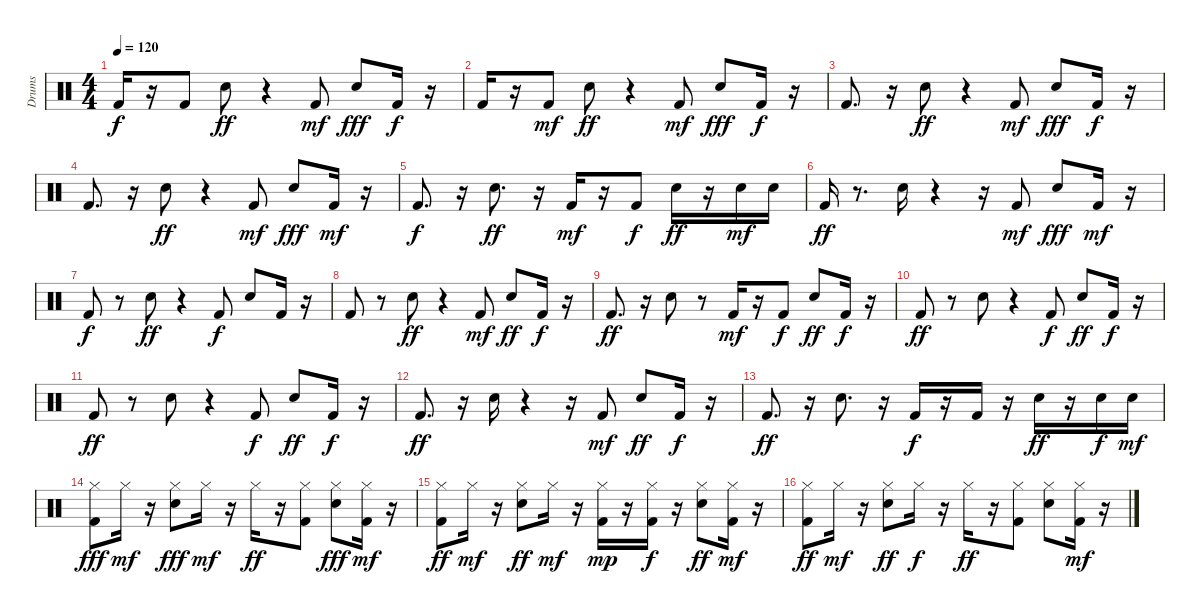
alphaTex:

\track ("Drums" "Drums") {instrument percussion}
\staff {score}
\articulation defaults
\ts (4 4)
\tempo 120
\clef neutral
\ks c "Kick (hit) 2".16{dy f}
r.16 "Kick (hit) 2".8 "Electric Snare (hit)".8{dy ff} r.4 "Kick (hit) 2".8{dy mf} "Electric Snare (hit)".8{dy fff} "Kick (hit) 2".16{dy f} r.16 |
"Kick (hit) 2".16 r.16 "Kick (hit) 2".8{dy mf} "Electric Snare (hit)".8{dy ff} r.4 "Kick (hit) 2".8{dy mf} "Electric Snare (hit)".8{dy fff} "Kick (hit) 2".16{dy f} r.16 |
"Kick (hit) 2".8{d} r.16 "Electric Snare (hit)".8{dy ff} r.4 "Kick (hit) 2".8{dy mf} "Electric Snare (hit)".8{dy fff} "Kick (hit) 2".16{dy f} r.16 |
"Kick (hit) 2".8{d} r.16 "Electric Snare (hit)".8{dy ff} r.4 "Kick (hit) 2".8{dy mf} "Electric Snare (hit)".8{dy fff} "Kick (hit) 2".16{dy mf} r.16 |
"Kick (hit) 2".8{d dy f} r.16 "Electric Snare (hit)".8{d dy ff} r.16 "Kick (hit) 2".16{dy mf} r.16 "Kick (hit) 2".8{dy f} "Electric Snare (hit)".16{dy ff} r.16 "Electric Snare (hit)".16{dy mf} "Electric Snare (hit)".16 |
"Kick (hit) 2".16{dy ff} r.8{d} "Electric Snare (hit)".16 r.4 r.16 "Kick (hit) 2".8{dy mf} "Electric Snare (hit)".8{dy fff} "Kick (hit) 2".16{dy mf} r.16 |
"Kick (hit) 2".8{dy f} r.8 "Electric Snare (hit)".8{dy ff} r.4 "Kick (hit) 2".8{dy f} "Electric Snare (hit)".8 "Kick (hit) 2".16 r.16 |
"Kick (hit) 2".8 r.8 "Electric Snare (hit)".8{dy ff} r.4 "Kick (hit) 2".8{dy mf} "Electric Snare (hit)".8{dy ff} "Kick (hit) 2".16{dy f} r.16 |
"Kick (hit) 2".8{d dy ff} r.16 "Electric Snare (hit)".8 r.8 "Kick (hit) 2".16{dy mf} r.16 "Kick (hit) 2".8{dy f} "Electric Snare (hit)".8{dy ff} "Kick (hit) 2".16{dy f} r.16 |
"Kick (hit) 2".8{dy ff} r.8 "Electric Snare (hit)".8 r.4 "Kick (hit) 2".8{dy f} "Electric Snare (hit)".8{dy ff} "Kick (hit) 2".16{dy f} r.16 |
"Kick (hit) 2".8{dy ff} r.8 "Electric Snare (hit)".8 r.4 "Kick (hit) 2".8{dy f} "Electric Snare (hit)".8{dy ff} "Kick (hit) 2".16{dy f} r.16 |
"Kick (hit) 2".8{d dy ff} r.16 "Electric Snare (hit)".16 r.4 r.16 "Kick (hit) 2".8{dy mf} "Electric Snare (hit)".8{dy ff} "Kick (hit) 2".16{dy f} r.16 |
"Kick (hit) 2".8{d dy ff} r.16 "Electric Snare (hit)".8{d} r.16 "Kick (hit) 2".16{dy f} r.16 "Kick (hit) 2".16 r.16 "Electric Snare (hit)".16{dy ff} r.16 "Electric Snare (hit)".16{dy f} "Electric Snare (hit)".16{dy mf} |
("Kick (hit) 2" "Hi-Hat (closed)").8{dy fff} "Hi-Hat (closed)".16{dy mf} r.16 ("Electric Snare (hit)" "Hi-Hat (closed)").8{dy fff} "Hi-Hat (closed)".16{dy mf} r.16 "Hi-Hat (closed)".16{dy ff} r.16 ("Hi-Hat (closed)" "Kick (hit) 2").8 ("Electric Snare (hit)" "Hi-Hat (closed)").8{dy fff} ("Kick (hit) 2" "Hi-Hat (closed)").16{dy mf} r.16 |
("Kick (hit) 2" "Hi-Hat (closed)").8{dy ff} "Hi-Hat (closed)".16{dy mf} r.16 ("Electric Snare (hit)" "Hi-Hat (closed)").8{dy ff} "Hi-Hat (closed)".16{dy mf} r.16 ("Kick (hit) 2" "Hi-Hat (closed)").16{dy mp} r.16 ("Hi-Hat (closed)" "Kick (hit) 2").16{dy f} r.16 ("Hi-Hat (closed)" "Electric Snare (hit)").8{dy ff} ("Kick (hit) 2" "Hi-Hat (closed)").16{dy mf} r.16 |
("Hi-Hat (closed)" "Kick (hit) 2").8{dy ff} "Hi-Hat (closed)".16{dy mf} r.16 ("Hi-Hat (closed)" "Electric Snare (hit)").8{dy ff} "Hi-Hat (closed)".16{dy f} r.16 "Hi-Hat (closed)".16{dy ff} r.16 ("Kick (hit) 2" "Hi-Hat (closed)").8 ("Electric Snare (hit)" "Hi-Hat (closed)").8 ("Kick (hit) 2" "Hi-Hat (closed)").16{dy mf} r.16
